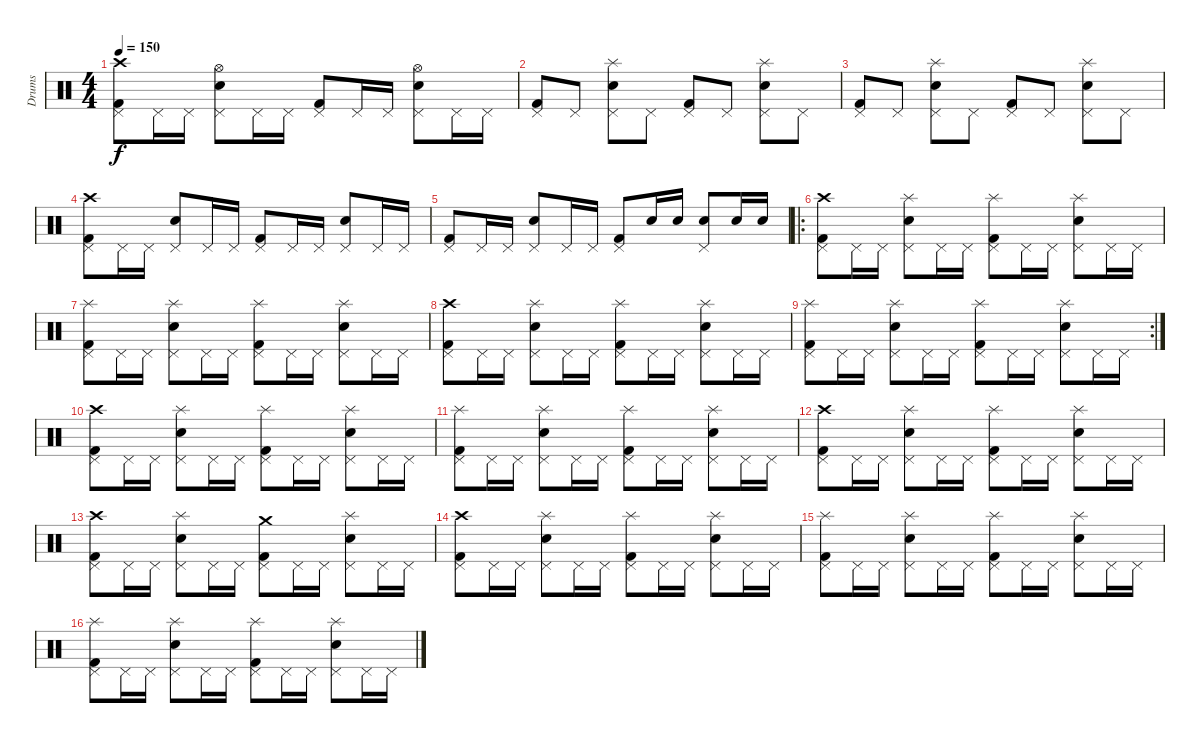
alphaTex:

\track ("Drums" "Drums") {instrument percussion}
\staff {score}
\articulation defaults
\ts (4 4)
\tempo 150
\clef neutral
\ks c
("Kick (hit) 2" "Pedal Hi-Hat (hit)" "Crash high (hit)").8{dy f} "Pedal Hi-Hat (hit)".16 "Pedal Hi-Hat (hit)".16 ("Snare (hit) 2" "Pedal Hi-Hat (hit)" "Hi-Hat (open)").8 "Pedal Hi-Hat (hit)".16 "Pedal Hi-Hat (hit)".16 ("Kick (hit) 2" "Pedal Hi-Hat (hit)").8 "Pedal Hi-Hat (hit)".16 "Pedal Hi-Hat (hit)".16 ("Snare (hit) 2" "Pedal Hi-Hat (hit)" "Hi-Hat (open)").8 "Pedal Hi-Hat (hit)".16 "Pedal Hi-Hat (hit)".16 |
("Kick (hit) 2" "Pedal Hi-Hat (hit)").8 "Pedal Hi-Hat (hit)".8 ("Snare (hit) 2" "Pedal Hi-Hat (hit)" "Splash (hit)").8 "Pedal Hi-Hat (hit)".8 ("Kick (hit) 2" "Pedal Hi-Hat (hit)").8 "Pedal Hi-Hat (hit)".8 ("Snare (hit) 2" "Pedal Hi-Hat (hit)" "Splash (hit)").8 "Pedal Hi-Hat (hit)".8 |
("Kick (hit) 2" "Pedal Hi-Hat (hit)").8 "Pedal Hi-Hat (hit)".8 ("Snare (hit) 2" "Pedal Hi-Hat (hit)" "Splash (hit)").8 "Pedal Hi-Hat (hit)".8 ("Kick (hit) 2" "Pedal Hi-Hat (hit)").8 "Pedal Hi-Hat (hit)".8 ("Snare (hit) 2" "Pedal Hi-Hat (hit)" "Splash (hit)").8 "Pedal Hi-Hat (hit)".8 |
("Kick (hit) 2" "Pedal Hi-Hat (hit)" "Crash high (hit)").8 "Pedal Hi-Hat (hit)".16 "Pedal Hi-Hat (hit)".16 ("Snare (hit) 2" "Pedal Hi-Hat (hit)").8 "Pedal Hi-Hat (hit)".16 "Pedal Hi-Hat (hit)".16 ("Kick (hit) 2" "Pedal Hi-Hat (hit)").8 "Pedal Hi-Hat (hit)".16 "Pedal Hi-Hat (hit)".16 ("Snare (hit) 2" "Pedal Hi-Hat (hit)").8 "Pedal Hi-Hat (hit)".16 "Pedal Hi-Hat (hit)".16 |
("Kick (hit) 2" "Pedal Hi-Hat (hit)").8 "Pedal Hi-Hat (hit)".16 "Pedal Hi-Hat (hit)".16 ("Snare (hit) 2" "Pedal Hi-Hat (hit)").8 "Pedal Hi-Hat (hit)".16 "Pedal Hi-Hat (hit)".16 ("Kick (hit) 2" "Pedal Hi-Hat (hit)").8 "Snare (hit) 2".16 "Snare (hit) 2".16 ("Snare (hit) 2" "Pedal Hi-Hat (hit)").8 "Snare (hit) 2".16 "Snare (hit) 2".16 |
\ro
("Kick (hit) 2" "Pedal Hi-Hat (hit)" "Crash high (hit)").8 "Pedal Hi-Hat (hit)".16 "Pedal Hi-Hat (hit)".16 ("Snare (hit) 2" "Pedal Hi-Hat (hit)" "Splash (hit)").8 "Pedal Hi-Hat (hit)".16 "Pedal Hi-Hat (hit)".16 ("Kick (hit) 2" "Pedal Hi-Hat (hit)" "Splash (hit)").8 "Pedal Hi-Hat (hit)".16 "Pedal Hi-Hat (hit)".16 ("Snare (hit) 2" "Pedal Hi-Hat (hit)" "Splash (hit)").8 "Pedal Hi-Hat (hit)".16 "Pedal Hi-Hat (hit)".16 |
("Kick (hit) 2" "Pedal Hi-Hat (hit)" "Splash (hit)").8 "Pedal Hi-Hat (hit)".16 "Pedal Hi-Hat (hit)".16 ("Snare (hit) 2" "Pedal Hi-Hat (hit)" "Splash (hit)").8 "Pedal Hi-Hat (hit)".16 "Pedal Hi-Hat (hit)".16 ("Kick (hit) 2" "Pedal Hi-Hat (hit)" "Splash (hit)").8 "Pedal Hi-Hat (hit)".16 "Pedal Hi-Hat (hit)".16 ("Snare (hit) 2" "Pedal Hi-Hat (hit)" "Splash (hit)").8 "Pedal Hi-Hat (hit)".16 "Pedal Hi-Hat (hit)".16 |
("Kick (hit) 2" "Pedal Hi-Hat (hit)" "Crash high (hit)").8 "Pedal Hi-Hat (hit)".16 "Pedal Hi-Hat (hit)".16 ("Snare (hit) 2" "Pedal Hi-Hat (hit)" "Splash (hit)").8 "Pedal Hi-Hat (hit)".16 "Pedal Hi-Hat (hit)".16 ("Kick (hit) 2" "Pedal Hi-Hat (hit)" "Splash (hit)").8 "Pedal Hi-Hat (hit)".16 "Pedal Hi-Hat (hit)".16 ("Snare (hit) 2" "Pedal Hi-Hat (hit)" "Splash (hit)").8 "Pedal Hi-Hat (hit)".16 "Pedal Hi-Hat (hit)".16 |
\rc 2
("Kick (hit) 2" "Pedal Hi-Hat (hit)" "Splash (hit)").8 "Pedal Hi-Hat (hit)".16 "Pedal Hi-Hat (hit)".16 ("Snare (hit) 2" "Pedal Hi-Hat (hit)" "Splash (hit)").8 "Pedal Hi-Hat (hit)".16 "Pedal Hi-Hat (hit)".16 ("Kick (hit) 2" "Pedal Hi-Hat (hit)" "Splash (hit)").8 "Pedal Hi-Hat (hit)".16 "Pedal Hi-Hat (hit)".16 ("Snare (hit) 2" "Pedal Hi-Hat (hit)" "Splash (hit)").8 "Pedal Hi-Hat (hit)".16 "Pedal Hi-Hat (hit)".16 |
("Kick (hit) 2" "Pedal Hi-Hat (hit)" "Crash high (hit)").8 "Pedal Hi-Hat (hit)".16 "Pedal Hi-Hat (hit)".16 ("Snare (hit) 2" "Pedal Hi-Hat (hit)" "Splash (hit)").8 "Pedal Hi-Hat (hit)".16 "Pedal Hi-Hat (hit)".16 ("Kick (hit) 2" "Pedal Hi-Hat (hit)" "Splash (hit)").8 "Pedal Hi-Hat (hit)".16 "Pedal Hi-Hat (hit)".16 ("Snare (hit) 2" "Pedal Hi-Hat (hit)" "Splash (hit)").8 "Pedal Hi-Hat (hit)".16 "Pedal Hi-Hat (hit)".16 |
("Kick (hit) 2" "Pedal Hi-Hat (hit)" "Splash (hit)").8 "Pedal Hi-Hat (hit)".16 "Pedal Hi-Hat (hit)".16 ("Snare (hit) 2" "Pedal Hi-Hat (hit)" "Splash (hit)").8 "Pedal Hi-Hat (hit)".16 "Pedal Hi-Hat (hit)".16 ("Kick (hit) 2" "Pedal Hi-Hat (hit)" "Splash (hit)").8 "Pedal Hi-Hat (hit)".16 "Pedal Hi-Hat (hit)".16 ("Snare (hit) 2" "Pedal Hi-Hat (hit)" "Splash (hit)").8 "Pedal Hi-Hat (hit)".16 "Pedal Hi-Hat (hit)".16 |
("Kick (hit) 2" "Pedal Hi-Hat (hit)" "Crash high (hit)").8 "Pedal Hi-Hat (hit)".16 "Pedal Hi-Hat (hit)".16 ("Snare (hit) 2" "Pedal Hi-Hat (hit)" "Splash (hit)").8 "Pedal Hi-Hat (hit)".16 "Pedal Hi-Hat (hit)".16 ("Kick (hit) 2" "Pedal Hi-Hat (hit)" "Splash (hit)").8 "Pedal Hi-Hat (hit)".16 "Pedal Hi-Hat (hit)".16 ("Snare (hit) 2" "Pedal Hi-Hat (hit)" "Splash (hit)").8 "Pedal Hi-Hat (hit)".16 "Pedal Hi-Hat (hit)".16 |
("Kick (hit) 2" "Pedal Hi-Hat (hit)" "Crash high (hit)").8 "Pedal Hi-Hat (hit)".16 "Pedal Hi-Hat (hit)".16 ("Snare (hit) 2" "Pedal Hi-Hat (hit)" "Splash (hit)").8 "Pedal Hi-Hat (hit)".16 "Pedal Hi-Hat (hit)".16 ("Kick (hit) 2" "Pedal Hi-Hat (hit)" "Crash medium (hit)").8 "Pedal Hi-Hat (hit)".16 "Pedal Hi-Hat (hit)".16 ("Snare (hit) 2" "Pedal Hi-Hat (hit)" "Splash (hit)").8 "Pedal Hi-Hat (hit)".16 "Pedal Hi-Hat (hit)".16 |
("Kick (hit) 2" "Pedal Hi-Hat (hit)" "Crash high (hit)").8 "Pedal Hi-Hat (hit)".16 "Pedal Hi-Hat (hit)".16 ("Snare (hit) 2" "Pedal Hi-Hat (hit)" "Splash (hit)").8 "Pedal Hi-Hat (hit)".16 "Pedal Hi-Hat (hit)".16 ("Kick (hit) 2" "Pedal Hi-Hat (hit)" "Splash (hit)").8 "Pedal Hi-Hat (hit)".16 "Pedal Hi-Hat (hit)".16 ("Snare (hit) 2" "Pedal Hi-Hat (hit)" "Splash (hit)").8 "Pedal Hi-Hat (hit)".16 "Pedal Hi-Hat (hit)".16 |
("Kick (hit) 2" "Pedal Hi-Hat (hit)" "Splash (hit)").8 "Pedal Hi-Hat (hit)".16 "Pedal Hi-Hat (hit)".16 ("Snare (hit) 2" "Pedal Hi-Hat (hit)" "Splash (hit)").8 "Pedal Hi-Hat (hit)".16 "Pedal Hi-Hat (hit)".16 ("Kick (hit) 2" "Pedal Hi-Hat (hit)" "Splash (hit)").8 "Pedal Hi-Hat (hit)".16 "Pedal Hi-Hat (hit)".16 ("Snare (hit) 2" "Pedal Hi-Hat (hit)" "Splash (hit)").8 "Pedal Hi-Hat (hit)".16 "Pedal Hi-Hat (hit)".16 |
("Kick (hit) 2" "Pedal Hi-Hat (hit)" "Splash (hit)").8 "Pedal Hi-Hat (hit)".16 "Pedal Hi-Hat (hit)".16 ("Snare (hit) 2" "Pedal Hi-Hat (hit)" "Splash (hit)").8 "Pedal Hi-Hat (hit)".16 "Pedal Hi-Hat (hit)".16 ("Kick (hit) 2" "Pedal Hi-Hat (hit)" "Splash (hit)").8 "Pedal Hi-Hat (hit)".16 "Pedal Hi-Hat (hit)".16 ("Snare (hit) 2" "Pedal Hi-Hat (hit)" "Splash (hit)").8 "Pedal Hi-Hat (hit)".16 "Pedal Hi-Hat (hit)".16
